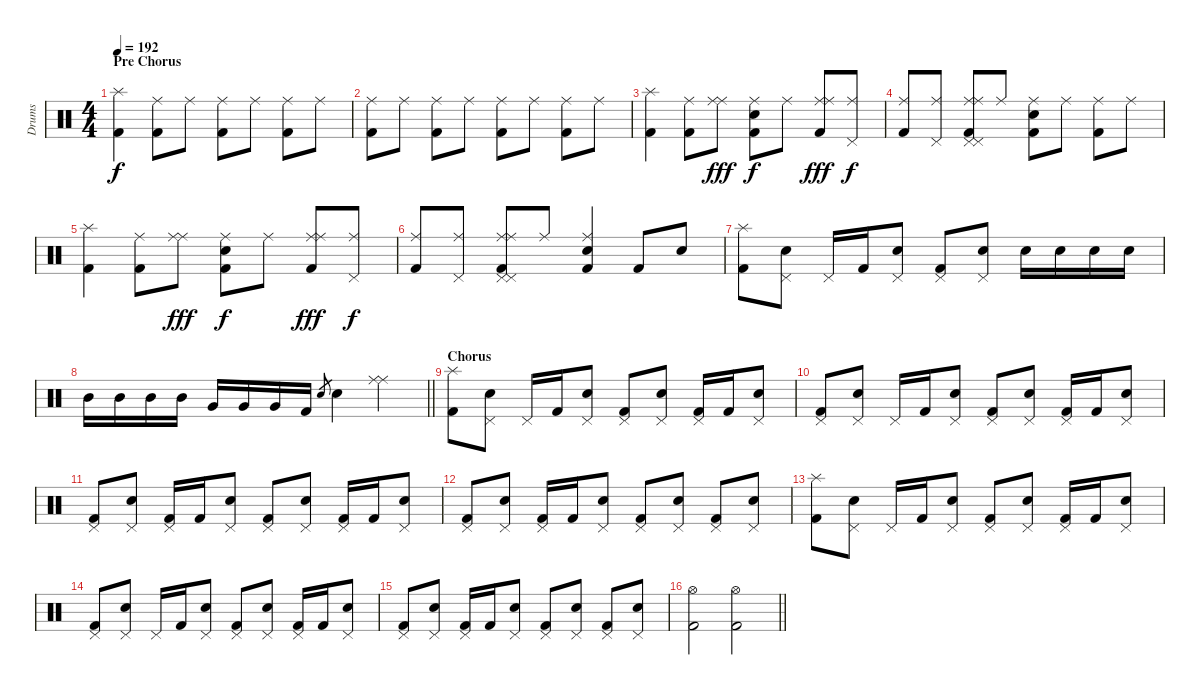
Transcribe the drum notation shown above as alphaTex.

\track ("Drums" "Drums") {instrument percussion}
\staff {score}
\articulation defaults
\ts (4 4)
\section ("" "Pre Chorus")
\tempo 192
\clef neutral
\ks c
("Splash (hit)" "Kick (hit) 2").4{dy f} ("Ride (middle)" "Kick (hit) 2").8 "Ride (middle)".8 ("Ride (middle)" "Kick (hit) 2").8 "Ride (middle)".8 ("Ride (middle)" "Kick (hit) 2").8 "Ride (middle)".8 |
("Ride (middle)" "Kick (hit) 2").8 "Ride (middle)".8 ("Ride (middle)" "Kick (hit) 2").8 "Ride (middle)".8 ("Ride (middle)" "Kick (hit) 2").8 "Ride (middle)".8 ("Ride (middle)" "Kick (hit) 2").8 "Ride (middle)".8 |
("Splash (hit)" "Kick (hit) 2").4 ("Ride (middle)" "Kick (hit) 2").8 ("Ride (middle)" "Ride (middle)").8{dy fff} ("Ride (middle)" "Electric Snare (hit)" "Kick (hit) 2").8{dy f} "Ride (middle)".8 ("Ride (middle)" "Ride (middle)" "Kick (hit) 2").8{dy fff} ("Ride (middle)" "Pedal Hi-Hat (hit)").8{dy f} |
("Ride (middle)" "Kick (hit) 2").8 ("Ride (middle)" "Pedal Hi-Hat (hit)").8 ("Ride (middle)" "Ride (middle)" "Pedal Hi-Hat (hit)" "Pedal Hi-Hat (hit)" "Kick (hit) 2").8 "Ride (middle)".8 ("Ride (middle)" "Electric Snare (hit)" "Kick (hit) 2").8 "Ride (middle)".8 ("Ride (middle)" "Kick (hit) 2").8 "Ride (middle)".8 |
("Splash (hit)" "Kick (hit) 2").4 ("Ride (middle)" "Kick (hit) 2").8 ("Ride (middle)" "Ride (middle)").8{dy fff} ("Ride (middle)" "Electric Snare (hit)" "Kick (hit) 2").8{dy f} "Ride (middle)".8 ("Ride (middle)" "Ride (middle)" "Kick (hit) 2").8{dy fff} ("Ride (middle)" "Pedal Hi-Hat (hit)").8{dy f} |
("Ride (middle)" "Kick (hit) 2").8 ("Ride (middle)" "Pedal Hi-Hat (hit)").8 ("Ride (middle)" "Ride (middle)" "Pedal Hi-Hat (hit)" "Pedal Hi-Hat (hit)" "Kick (hit) 2").8 "Ride (middle)".8 ("Ride (middle)" "Electric Snare (hit)" "Kick (hit) 2").4 "Kick (hit) 2".8 "Electric Snare (hit)".8 |
("Splash (hit)" "Kick (hit) 2").8 ("Pedal Hi-Hat (hit)" "Electric Snare (hit)").8 "Pedal Hi-Hat (hit)".16 "Kick (hit) 2".16 ("Pedal Hi-Hat (hit)" "Electric Snare (hit)").8 ("Pedal Hi-Hat (hit)" "Kick (hit) 2").8 ("Pedal Hi-Hat (hit)" "Electric Snare (hit)").8 "Electric Snare (hit)".16 "Electric Snare (hit)".16 "Electric Snare (hit)".16 "Electric Snare (hit)".16 |
\barLineRight lightlight "Mid Tom (hit)".16 "Mid Tom (hit)".16 "Mid Tom (hit)".16 "Mid Tom (hit)".16 "Very Low Tom (hit)".16 "Very Low Tom (hit)".16 "Very Low Tom (hit)".16 "Kick (hit) 2".16 "Electric Snare (hit)".8{gr} "Electric Snare (hit)".4
("Ride (middle)" "Ride (middle)").4 |
\section ("" "Chorus")
("Splash (hit)" "Kick (hit) 2").8 ("Pedal Hi-Hat (hit)" "Electric Snare (hit)").8 "Pedal Hi-Hat (hit)".16 "Kick (hit) 2".16 ("Pedal Hi-Hat (hit)" "Electric Snare (hit)").8 ("Pedal Hi-Hat (hit)" "Kick (hit) 2").8 ("Pedal Hi-Hat (hit)" "Electric Snare (hit)").8 ("Pedal Hi-Hat (hit)" "Kick (hit) 2").16 "Kick (hit) 2".16 ("Pedal Hi-Hat (hit)" "Electric Snare (hit)").8 |
("Pedal Hi-Hat (hit)" "Kick (hit) 2").8 ("Pedal Hi-Hat (hit)" "Electric Snare (hit)").8 "Pedal Hi-Hat (hit)".16 "Kick (hit) 2".16 ("Pedal Hi-Hat (hit)" "Electric Snare (hit)").8 ("Pedal Hi-Hat (hit)" "Kick (hit) 2").8 ("Pedal Hi-Hat (hit)" "Electric Snare (hit)").8 ("Pedal Hi-Hat (hit)" "Kick (hit) 2").16 "Kick (hit) 2".16 ("Pedal Hi-Hat (hit)" "Electric Snare (hit)").8 |
("Pedal Hi-Hat (hit)" "Kick (hit) 2").8 ("Pedal Hi-Hat (hit)" "Electric Snare (hit)").8 ("Pedal Hi-Hat (hit)" "Kick (hit) 2").16 "Kick (hit) 2".16 ("Pedal Hi-Hat (hit)" "Electric Snare (hit)").8 ("Pedal Hi-Hat (hit)" "Kick (hit) 2").8 ("Pedal Hi-Hat (hit)" "Electric Snare (hit)").8 ("Pedal Hi-Hat (hit)" "Kick (hit) 2").16 "Kick (hit) 2".16 ("Pedal Hi-Hat (hit)" "Electric Snare (hit)").8 |
("Pedal Hi-Hat (hit)" "Kick (hit) 2").8 ("Pedal Hi-Hat (hit)" "Electric Snare (hit)").8 ("Pedal Hi-Hat (hit)" "Kick (hit) 2").16 "Kick (hit) 2".16 ("Pedal Hi-Hat (hit)" "Electric Snare (hit)").8 ("Pedal Hi-Hat (hit)" "Kick (hit) 2").8 ("Pedal Hi-Hat (hit)" "Electric Snare (hit)").8 ("Pedal Hi-Hat (hit)" "Kick (hit) 2").8 ("Pedal Hi-Hat (hit)" "Electric Snare (hit)").8 |
("Splash (hit)" "Kick (hit) 2").8 ("Pedal Hi-Hat (hit)" "Electric Snare (hit)").8 "Pedal Hi-Hat (hit)".16 "Kick (hit) 2".16 ("Pedal Hi-Hat (hit)" "Electric Snare (hit)").8 ("Pedal Hi-Hat (hit)" "Kick (hit) 2").8 ("Pedal Hi-Hat (hit)" "Electric Snare (hit)").8 ("Pedal Hi-Hat (hit)" "Kick (hit) 2").16 "Kick (hit) 2".16 ("Pedal Hi-Hat (hit)" "Electric Snare (hit)").8 |
("Pedal Hi-Hat (hit)" "Kick (hit) 2").8 ("Pedal Hi-Hat (hit)" "Electric Snare (hit)").8 "Pedal Hi-Hat (hit)".16 "Kick (hit) 2".16 ("Pedal Hi-Hat (hit)" "Electric Snare (hit)").8 ("Pedal Hi-Hat (hit)" "Kick (hit) 2").8 ("Pedal Hi-Hat (hit)" "Electric Snare (hit)").8 ("Pedal Hi-Hat (hit)" "Kick (hit) 2").16 "Kick (hit) 2".16 ("Pedal Hi-Hat (hit)" "Electric Snare (hit)").8 |
("Pedal Hi-Hat (hit)" "Kick (hit) 2").8 ("Pedal Hi-Hat (hit)" "Electric Snare (hit)").8 ("Pedal Hi-Hat (hit)" "Kick (hit) 2").16 "Kick (hit) 2".16 ("Pedal Hi-Hat (hit)" "Electric Snare (hit)").8 ("Pedal Hi-Hat (hit)" "Kick (hit) 2").8 ("Pedal Hi-Hat (hit)" "Electric Snare (hit)").8 ("Pedal Hi-Hat (hit)" "Kick (hit) 2").8 ("Pedal Hi-Hat (hit)" "Electric Snare (hit)").8 |
\barLineRight lightlight
("Hi-Hat (open)" "Kick (hit) 2").2 ("Hi-Hat (open)" "Kick (hit) 2").2
